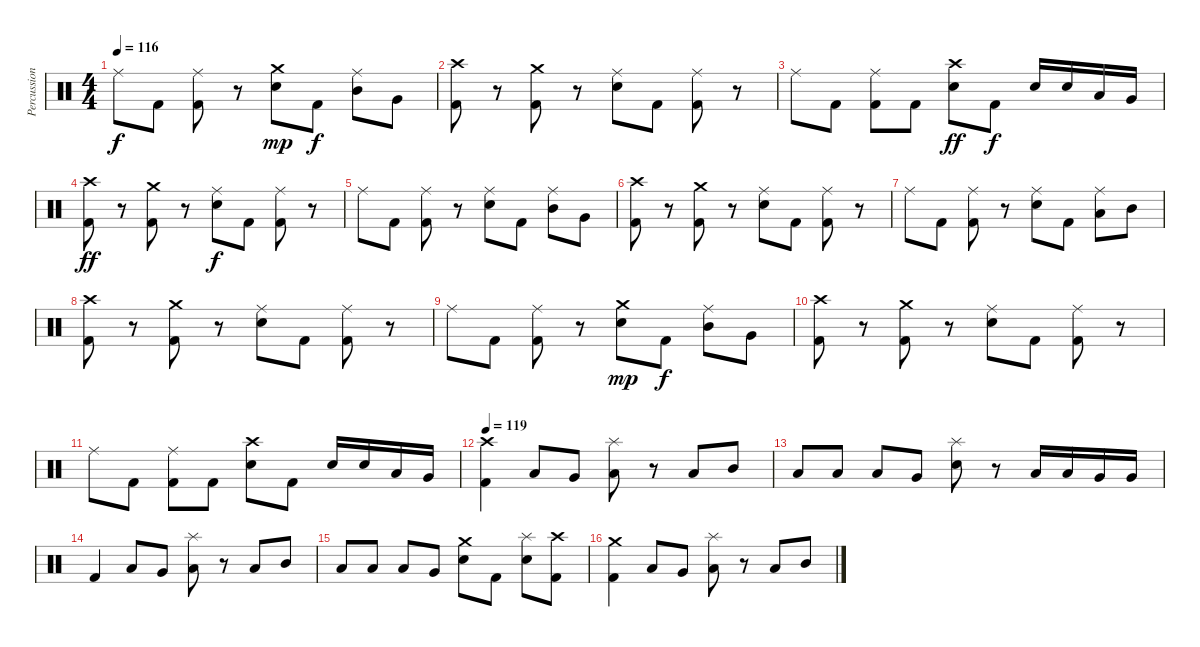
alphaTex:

\track ("Percussion" "Percussion") {instrument percussion}
\staff {score}
\articulation defaults
\ts (4 4)
\tempo 116
\clef neutral
\ks c "Ride (middle)".8{dy f} "Kick (hit) 2".8
("Ride (middle)" "Kick (hit) 2").8 r.8 ("Crash medium (hit)" "Snare (hit) 2").8{dy mp} "Kick (hit) 2".8{dy f} ("Ride (middle)" "Mid Tom (hit)").8 "Very Low Tom (hit)".8 |
("Crash high (hit)" "Kick (hit) 2").8 r.8 ("Crash medium (hit)" "Kick (hit) 2").8 r.8 ("Ride (middle)" "Snare (hit) 2").8 "Kick (hit) 2".8 ("Ride (middle)" "Kick (hit) 2").8 r.8 |
"Ride (middle)".8 "Kick (hit) 2".8 ("Ride (middle)" "Kick (hit) 2").8 "Kick (hit) 2".8 ("Crash high (hit)" "Snare (hit) 2").8{dy ff} "Kick (hit) 2".8{dy f} "Snare (hit) 2".16 "Snare (hit) 2".16 "Low Tom (hit)".16 "Very Low Tom (hit)".16 |
("Crash high (hit)" "Kick (hit) 2").8{dy ff} r.8 ("Crash medium (hit)" "Kick (hit) 2").8 r.8 ("Ride (middle)" "Snare (hit) 2").8{dy f} "Kick (hit) 2".8 ("Ride (middle)" "Kick (hit) 2").8 r.8 |
"Ride (middle)".8 "Kick (hit) 2".8 ("Ride (middle)" "Kick (hit) 2").8 r.8 ("Ride (middle)" "Snare (hit) 2").8 "Kick (hit) 2".8 ("Ride (middle)" "Mid Tom (hit)").8 "Very Low Tom (hit)".8 |
("Crash high (hit)" "Kick (hit) 2").8 r.8 ("Crash medium (hit)" "Kick (hit) 2").8 r.8 ("Ride (middle)" "Snare (hit) 2").8 "Kick (hit) 2".8 ("Ride (middle)" "Kick (hit) 2").8 r.8 |
"Ride (middle)".8 "Kick (hit) 2".8 ("Ride (middle)" "Kick (hit) 2").8 r.8 ("Ride (middle)" "Snare (hit) 2").8 "Kick (hit) 2".8 ("Ride (middle)" "Low Tom (hit)").8 "Mid Tom (hit)".8 |
("Crash high (hit)" "Kick (hit) 2").8 r.8 ("Crash medium (hit)" "Kick (hit) 2").8 r.8 ("Ride (middle)" "Snare (hit) 2").8 "Kick (hit) 2".8 ("Ride (middle)" "Kick (hit) 2").8 r.8 |
"Ride (middle)".8 "Kick (hit) 2".8 ("Ride (middle)" "Kick (hit) 2").8 r.8 ("Crash medium (hit)" "Snare (hit) 2").8{dy mp} "Kick (hit) 2".8{dy f} ("Ride (middle)" "Mid Tom (hit)").8 "Very Low Tom (hit)".8 |
("Crash high (hit)" "Kick (hit) 2").8 r.8 ("Crash medium (hit)" "Kick (hit) 2").8 r.8 ("Ride (middle)" "Snare (hit) 2").8 "Kick (hit) 2".8 ("Ride (middle)" "Kick (hit) 2").8 r.8 |
"Ride (middle)".8 "Kick (hit) 2".8 ("Ride (middle)" "Kick (hit) 2").8 "Kick (hit) 2".8 ("Crash high (hit)" "Snare (hit) 2").8 "Kick (hit) 2".8 "Snare (hit) 2".16 "Snare (hit) 2".16 "Low Tom (hit)".16 "Very Low Tom (hit)".16 |
\tempo 119
("Crash high (hit)" "Kick (hit) 2").4 "Low Tom (hit)".8 "Very Low Tom (hit)".8 ("Splash (hit)" "Low Floor Tom (hit)").8 r.8 "Low Floor Tom (hit)".8 "Mid Tom (hit)".8 |
"Low Floor Tom (hit)".8 "Low Tom (hit)".8 "Low Floor Tom (hit)".8 "Very Low Tom (hit)".8 ("Splash (hit)" "Snare (hit) 2").8 r.8 "Low Tom (hit)".16 "Low Tom (hit)".16 "Very Low Tom (hit)".16 "Very Low Tom (hit)".16 |
"Kick (hit) 2".4 "Low Tom (hit)".8 "Very Low Tom (hit)".8 ("Splash (hit)" "Low Floor Tom (hit)").8 r.8 "Low Floor Tom (hit)".8 "Mid Tom (hit)".8 |
"Low Floor Tom (hit)".8 "Low Tom (hit)".8 "Low Floor Tom (hit)".8 "Very Low Tom (hit)".8 ("Crash medium (hit)" "Snare (hit) 2").8 "Kick (hit) 2".8 ("Splash (hit)" "Snare (hit) 2").8 ("Crash high (hit)" "Kick (hit) 2").8 |
("Crash medium (hit)" "Kick (hit) 2").4 "Low Tom (hit)".8 "Very Low Tom (hit)".8 ("Splash (hit)" "Low Floor Tom (hit)").8 r.8 "Low Floor Tom (hit)".8 "Mid Tom (hit)".8
